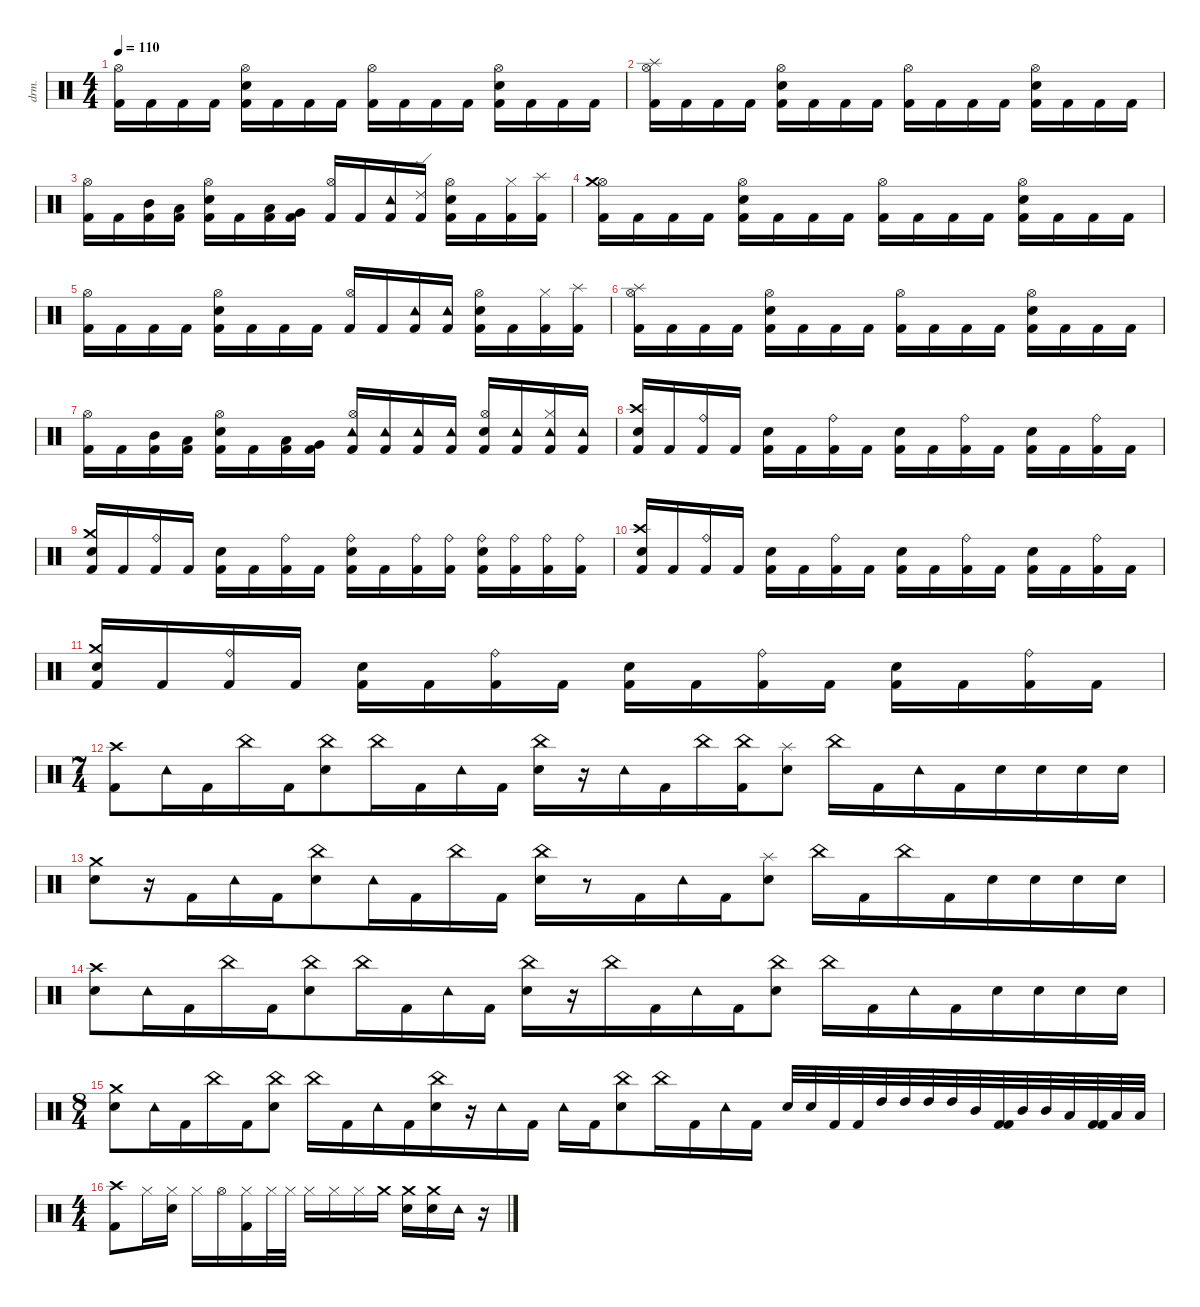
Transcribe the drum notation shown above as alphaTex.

\defaultSystemsLayout 4
\hideDynamics
\bracketExtendMode nobrackets
\otherSystemsTrackNameOrientation horizontal
\track ("Drums" "drm.") {instrument percussion}
\staff {score}
\articulation defaults
\ts (4 4)
\tempo 110
\clef neutral
\ks c
("Kick (hit) 2" "Hi-Hat (open)").16{dy f beam Down} "Kick (hit) 2".16{beam Down} "Kick (hit) 2".16{beam Down} "Kick (hit) 2".16{beam Down} ("Kick (hit) 2" "Snare (hit) 2" "Hi-Hat (open)").16{beam Down} "Kick (hit) 2".16{beam Down} "Kick (hit) 2".16{beam Down} "Kick (hit) 2".16{beam Down} ("Kick (hit) 2" "Hi-Hat (open)").16{beam Down} "Kick (hit) 2".16{beam Down} "Kick (hit) 2".16{beam Down} "Kick (hit) 2".16{beam Down} ("Kick (hit) 2" "Snare (hit) 2" "Hi-Hat (open)").16{beam Down} "Kick (hit) 2".16{beam Down} "Kick (hit) 2".16{beam Down} "Kick (hit) 2".16{beam Down} |
("Kick (hit) 2" "Splash (hit)" "Hi-Hat (open)").16{beam Down} "Kick (hit) 2".16{beam Down} "Kick (hit) 2".16{beam Down} "Kick (hit) 2".16{beam Down} ("Kick (hit) 2" "Snare (hit) 2" "Hi-Hat (open)").16{beam Down} "Kick (hit) 2".16{beam Down} "Kick (hit) 2".16{beam Down} "Kick (hit) 2".16{beam Down} ("Kick (hit) 2" "Hi-Hat (open)").16{beam Down} "Kick (hit) 2".16{beam Down} "Kick (hit) 2".16{beam Down} "Kick (hit) 2".16{beam Down} ("Kick (hit) 2" "Snare (hit) 2" "Hi-Hat (open)").16{beam Down} "Kick (hit) 2".16{beam Down} "Kick (hit) 2".16{beam Down} "Kick (hit) 2".16{beam Down} |
("Kick (hit) 2" "Hi-Hat (open)").16{beam Down} "Kick (hit) 2".16{beam Down} ("Kick (hit) 2" "Mid Tom (hit)").16{beam Down} ("Kick (hit) 2" "Low Tom (hit)").16{beam Down} ("Kick (hit) 2" "Snare (hit) 2" "Hi-Hat (open)").16{beam Down} "Kick (hit) 2".16{beam Down} ("Kick (hit) 2" "Low Tom (hit)").16{beam Down} ("Kick (hit) 2" "Very Low Tom (hit)").16{beam Down} ("Kick (hit) 2" "Hi-Hat (open)").16{beam Up} "Kick (hit) 2".16{beam Up} ("Kick (hit) 2" "Tambourine (hit)").16{beam Up} ("Kick (hit) 2" "Ride (edge) 2").16{beam Up} ("Kick (hit) 2" "Hi-Hat (open)" "Snare (hit) 2").16{beam Down} "Kick (hit) 2".16{beam Down} ("Kick (hit) 2" "Hi-Hat (closed)").16{beam Down} ("Kick (hit) 2" "Splash (hit)").16{beam Down} |
("Kick (hit) 2" "Hi-Hat (open)" "Crash medium (hit)").16{beam Down} "Kick (hit) 2".16{beam Down} "Kick (hit) 2".16{beam Down} "Kick (hit) 2".16{beam Down} ("Kick (hit) 2" "Snare (hit) 2" "Hi-Hat (open)").16{beam Down} "Kick (hit) 2".16{beam Down} "Kick (hit) 2".16{beam Down} "Kick (hit) 2".16{beam Down} ("Kick (hit) 2" "Hi-Hat (open)").16{beam Down} "Kick (hit) 2".16{beam Down} "Kick (hit) 2".16{beam Down} "Kick (hit) 2".16{beam Down} ("Kick (hit) 2" "Snare (hit) 2" "Hi-Hat (open)").16{beam Down} "Kick (hit) 2".16{beam Down} "Kick (hit) 2".16{beam Down} "Kick (hit) 2".16{beam Down} |
("Kick (hit) 2" "Hi-Hat (open)").16{beam Down} "Kick (hit) 2".16{beam Down} "Kick (hit) 2".16{beam Down} "Kick (hit) 2".16{beam Down} ("Kick (hit) 2" "Snare (hit) 2" "Hi-Hat (open)").16{beam Down} "Kick (hit) 2".16{beam Down} "Kick (hit) 2".16{beam Down} "Kick (hit) 2".16{beam Down} ("Hi-Hat (open)" "Kick (hit) 2").16{beam Up} "Kick (hit) 2".16{beam Up} ("Tambourine (hit)" "Kick (hit) 2").16{beam Up} ("Kick (hit) 2" "Tambourine (hit)").16{beam Up} ("Hi-Hat (open)" "Snare (hit) 2" "Kick (hit) 2").16{beam Down} "Kick (hit) 2".16{beam Down} ("Hi-Hat (closed)" "Kick (hit) 2").16{beam Down} ("Splash (hit)" "Kick (hit) 2").16{beam Down} |
("Hi-Hat (open)" "Splash (hit)" "Kick (hit) 2").16{beam Down} "Kick (hit) 2".16{beam Down} "Kick (hit) 2".16{beam Down} "Kick (hit) 2".16{beam Down} ("Kick (hit) 2" "Snare (hit) 2" "Hi-Hat (open)").16{beam Down} "Kick (hit) 2".16{beam Down} "Kick (hit) 2".16{beam Down} "Kick (hit) 2".16{beam Down} ("Kick (hit) 2" "Hi-Hat (open)").16{beam Down} "Kick (hit) 2".16{beam Down} "Kick (hit) 2".16{beam Down} "Kick (hit) 2".16{beam Down} ("Kick (hit) 2" "Snare (hit) 2" "Hi-Hat (open)").16{beam Down} "Kick (hit) 2".16{beam Down} "Kick (hit) 2".16{beam Down} "Kick (hit) 2".16{beam Down} |
("Kick (hit) 2" "Hi-Hat (open)").16{beam Down} "Kick (hit) 2".16{beam Down} ("Kick (hit) 2" "Mid Tom (hit)").16{beam Down} ("Kick (hit) 2" "Low Tom (hit)").16{beam Down} ("Kick (hit) 2" "Snare (hit) 2" "Hi-Hat (open)").16{beam Down} "Kick (hit) 2".16{beam Down} ("Kick (hit) 2" "Low Tom (hit)").16{beam Down} ("Kick (hit) 2" "Very Low Tom (hit)").16{beam Down} ("Kick (hit) 2" "Hi-Hat (open)" "Tambourine (hit)").16{beam Up} ("Kick (hit) 2" "Tambourine (hit)").16{beam Up} ("Kick (hit) 2" "Tambourine (hit)").16{beam Up} ("Kick (hit) 2" "Tambourine (hit)").16{beam Up} ("Kick (hit) 2" "Hi-Hat (open)" "Snare (hit) 2").16{beam Up} ("Kick (hit) 2" "Tambourine (hit)").16{beam Up} ("Kick (hit) 2" "Hi-Hat (closed)" "Tambourine (hit)").16{beam Up} ("Kick (hit) 2" "Tambourine (hit)").16{beam Up} |
("Kick (hit) 2" "Snare (hit) 2" "Crash high (hit)").16{beam Up} "Kick (hit) 2".16{beam Up} ("Kick (hit) 2" "Ride (bell)").16{beam Up} "Kick (hit) 2".16{beam Up} ("Kick (hit) 2" "Snare (hit) 2").16{beam Down} "Kick (hit) 2".16{beam Down} ("Kick (hit) 2" "Ride (bell)").16{beam Down} "Kick (hit) 2".16{beam Down} ("Kick (hit) 2" "Snare (hit) 2").16{beam Down} "Kick (hit) 2".16{beam Down} ("Kick (hit) 2" "Ride (bell)").16{beam Down} "Kick (hit) 2".16{beam Down} ("Kick (hit) 2" "Snare (hit) 2").16{beam Down} "Kick (hit) 2".16{beam Down} ("Kick (hit) 2" "Ride (bell)").16{beam Down} "Kick (hit) 2".16{beam Down} |
("Kick (hit) 2" "Snare (hit) 2" "Crash medium (hit)").16{beam Up} "Kick (hit) 2".16{beam Up} ("Kick (hit) 2" "Ride (bell)").16{beam Up} "Kick (hit) 2".16{beam Up} ("Kick (hit) 2" "Snare (hit) 2").16{beam Down} "Kick (hit) 2".16{beam Down} ("Kick (hit) 2" "Ride (bell)").16{beam Down} "Kick (hit) 2".16{beam Down} ("Kick (hit) 2" "Snare (hit) 2" "Ride (bell)").16{beam Down} "Kick (hit) 2".16{beam Down} ("Kick (hit) 2" "Ride (bell)").16{beam Down} ("Kick (hit) 2" "Ride (bell)").16{beam Down} ("Kick (hit) 2" "Snare (hit) 2" "Ride (bell)").16{beam Down} ("Kick (hit) 2" "Ride (bell)").16{beam Down} ("Kick (hit) 2" "Ride (bell)").16{beam Down} ("Kick (hit) 2" "Ride (bell)").16{beam Down} |
("Crash high (hit)" "Snare (hit) 2" "Kick (hit) 2").16{beam Up} "Kick (hit) 2".16{beam Up} ("Kick (hit) 2" "Ride (bell)").16{beam Up} "Kick (hit) 2".16{beam Up} ("Kick (hit) 2" "Snare (hit) 2").16{beam Down} "Kick (hit) 2".16{beam Down} ("Kick (hit) 2" "Ride (bell)").16{beam Down} "Kick (hit) 2".16{beam Down} ("Kick (hit) 2" "Snare (hit) 2").16{beam Down} "Kick (hit) 2".16{beam Down} ("Kick (hit) 2" "Ride (bell)").16{beam Down} "Kick (hit) 2".16{beam Down} ("Kick (hit) 2" "Snare (hit) 2").16{beam Down} "Kick (hit) 2".16{beam Down} ("Kick (hit) 2" "Ride (bell)").16{beam Down} "Kick (hit) 2".16{beam Down} |
("Kick (hit) 2" "Snare (hit) 2" "Crash medium (hit)").16{beam Up} "Kick (hit) 2".16{beam Up} ("Kick (hit) 2" "Ride (bell)").16{beam Up} "Kick (hit) 2".16{beam Up} ("Kick (hit) 2" "Snare (hit) 2").16{beam Down} "Kick (hit) 2".16{beam Down} ("Kick (hit) 2" "Ride (bell)").16{beam Down} "Kick (hit) 2".16{beam Down} ("Kick (hit) 2" "Snare (hit) 2").16{beam Down} "Kick (hit) 2".16{beam Down} ("Kick (hit) 2" "Ride (bell)").16{beam Down} "Kick (hit) 2".16{beam Down} ("Kick (hit) 2" "Snare (hit) 2").16{beam Down} "Kick (hit) 2".16{beam Down} ("Kick (hit) 2" "Ride (bell)").16{beam Down} "Kick (hit) 2".16{beam Down} |
\ts (7 4)
\beaming (8 6 4 4)
("Crash high (hit)" "Kick (hit) 2").8{beam Down} "Tambourine (hit)".16{beam Down} "Kick (hit) 2".16{beam Down} "China (hit)".16{beam Down} "Kick (hit) 2".16{beam Down} ("Snare (hit) 2" "China (hit)").8{beam Down} "China (hit)".16{beam Down} "Kick (hit) 2".16{beam Down} "Tambourine (hit)".16{beam Down} "Kick (hit) 2".16{beam Down} ("Snare (hit) 2" "China (hit)").16{beam Down} r.16{beam Down} "Tambourine (hit)".16{beam Down} "Kick (hit) 2".16{beam Down} "China (hit)".16{dy mf beam Down} ("Kick (hit) 2" "China (hit)").16{dy f beam Down} ("Snare (hit) 2" "Splash (hit)").8{beam Down} "China (hit)".16{beam Down} "Kick (hit) 2".16{beam Down} "Tambourine (hit)".16{beam Down} "Kick (hit) 2".16{beam Down} "Snare (hit) 2".16{beam Down} "Snare (hit) 2".16{beam Down} "Snare (hit) 2".16{beam Down} "Snare (hit) 2".16{beam Down} |
("Snare (hit) 2" "Crash medium (hit)").8{beam Down} r.16{beam Down} "Kick (hit) 2".16{beam Down} "Tambourine (hit)".16{beam Down} "Kick (hit) 2".16{beam Down} ("Snare (hit) 2" "China (hit)").8{beam Down} "Tambourine (hit)".16{beam Down} "Kick (hit) 2".16{beam Down} "China (hit)".16{beam Down} "Kick (hit) 2".16{beam Down} ("Snare (hit) 2" "China (hit)").16{beam Down} r.8{beam Down} "Kick (hit) 2".16{beam Down} "Tambourine (hit)".16{dy mf beam Down} "Kick (hit) 2".16{dy f beam Down} ("Snare (hit) 2" "Splash (hit)").8{beam Down} "China (hit)".16{beam Down} "Kick (hit) 2".16{beam Down} "China (hit)".16{beam Down} "Kick (hit) 2".16{beam Down} "Snare (hit) 2".16{beam Down} "Snare (hit) 2".16{beam Down} "Snare (hit) 2".16{beam Down} "Snare (hit) 2".16{beam Down} |
("Crash high (hit)" "Snare (hit) 2").8{beam Down} "Tambourine (hit)".16{beam Down} "Kick (hit) 2".16{beam Down} "China (hit)".16{beam Down} "Kick (hit) 2".16{beam Down} ("Snare (hit) 2" "China (hit)").8{beam Down} "China (hit)".16{beam Down} "Kick (hit) 2".16{beam Down} "Tambourine (hit)".16{beam Down} "Kick (hit) 2".16{beam Down} ("Snare (hit) 2" "China (hit)").16{beam Down} r.16{beam Down} "China (hit)".16{beam Down} "Kick (hit) 2".16{beam Down} "Tambourine (hit)".16{dy mf beam Down} "Kick (hit) 2".16{dy f beam Down} ("Snare (hit) 2" "China (hit)").8{beam Down} "China (hit)".16{beam Down} "Kick (hit) 2".16{beam Down} "Tambourine (hit)".16{beam Down} "Kick (hit) 2".16{beam Down} "Snare (hit) 2".16{beam Down} "Snare (hit) 2".16{beam Down} "Snare (hit) 2".16{beam Down} "Snare (hit) 2".16{beam Down} |
\ts (8 4)
\beaming (8 4 4 4 4)
("Crash medium (hit)" "Snare (hit) 2").8{beam Down} "Tambourine (hit)".16{beam Down} "Kick (hit) 2".16{beam Down} "China (hit)".16{beam Down} "Kick (hit) 2".16{beam Down} ("Snare (hit) 2" "China (hit)").8{beam Down} "China (hit)".16{beam Down} "Kick (hit) 2".16{beam Down} "Tambourine (hit)".16{beam Down} "Kick (hit) 2".16{beam Down} ("Snare (hit) 2" "China (hit)").16{beam Down} r.16{beam Down} "Tambourine (hit)".16{beam Down} "Kick (hit) 2".16{beam Down} "Tambourine (hit)".16{dy mp beam Down} "Kick (hit) 2".16{dy f beam Down} ("China (hit)" "Snare (hit) 2").8{beam Down} "China (hit)".16{beam Down} "Kick (hit) 2".16{beam Down} "Tambourine (hit)".16{beam Down} "Kick (hit) 2".16{beam Down} "Snare (hit) 2".32{beam Up} "Snare (hit) 2".32{beam Up} "Kick (hit) 2".32{beam Up} "Kick (hit) 2".32{beam Up} "High Tom (hit)".32{beam Up} "High Tom (hit)".32{beam Up} "High Tom (hit)".32{dy ff beam Up} "High Tom (hit)".32{dy f beam Up} "Mid Tom (hit)".32{beam Up} ("Kick (hit) 2" "Kick (hit) 2").32{beam Up} "Mid Tom (hit)".32{beam Up} "Mid Tom (hit)".32{beam Up} "Low Tom (hit)".32{beam Up} ("Kick (hit) 2" "Kick (hit) 2").32{beam Up} "Low Tom (hit)".32{beam Up} "Low Tom (hit)".32{beam Up} |
\ts (4 4)
\beaming (8 2 2 2 2)
("Crash high (hit)" "Kick (hit) 2").8{beam Down} "Hi-Hat (closed)".16{dy mf beam Down} ("Snare (hit) 2" "Hi-Hat (closed)").16{dy f beam Down} "Hi-Hat (closed)".16{dy mf beam Down} "Hi-Hat (open)".16{dy f beam Down} ("Kick (hit) 2" "Hi-Hat (closed)").16{beam Down} "Hi-Hat (closed)".32{dy mf beam Down} "Hi-Hat (closed)".32{beam Down} "Hi-Hat (closed)".16{beam Down} "Hi-Hat (closed)".16{beam Down} "Hi-Hat (closed)".16{beam Down} "Crash medium (hit)".16{dy mp beam Down} ("Snare (hit) 2" "Crash medium (hit)").16{dy mf beam Down} ("Snare (hit) 2" "Crash medium (hit)").16{dy f beam Down} "Tambourine (hit)".16{dy mf beam Down} r.16{beam Down}
